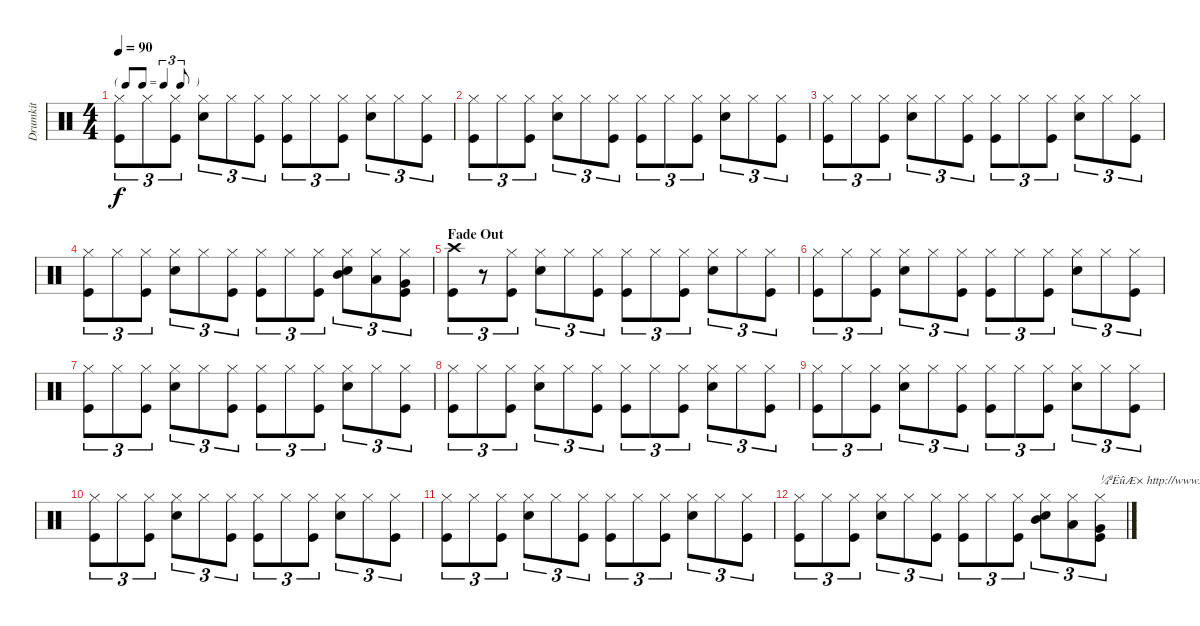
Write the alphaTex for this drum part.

\track ("Drumkit" "Drumkit") {instrument percussion}
\staff {score}
\articulation defaults
\ts (4 4)
\tf triplet8th
\tempo 90
\clef neutral
\ks c
("Hi-Hat (closed)" "Kick (hit)").8{tu (3 2) dy f} "Hi-Hat (closed)".8{tu (3 2)} ("Hi-Hat (closed)" "Kick (hit)").8{tu (3 2)} ("Hi-Hat (closed)" "Snare (hit) 2").8{tu (3 2)} "Hi-Hat (closed)".8{tu (3 2)} ("Hi-Hat (closed)" "Kick (hit)").8{tu (3 2)} ("Hi-Hat (closed)" "Kick (hit)").8{tu (3 2)} "Hi-Hat (closed)".8{tu (3 2)} ("Hi-Hat (closed)" "Kick (hit)").8{tu (3 2)} ("Hi-Hat (closed)" "Snare (hit) 2").8{tu (3 2)} "Hi-Hat (closed)".8{tu (3 2)} ("Hi-Hat (closed)" "Kick (hit)").8{tu (3 2)} |
("Hi-Hat (closed)" "Kick (hit)").8{tu (3 2)} "Hi-Hat (closed)".8{tu (3 2)} ("Hi-Hat (closed)" "Kick (hit)").8{tu (3 2)} ("Hi-Hat (closed)" "Snare (hit) 2").8{tu (3 2)} "Hi-Hat (closed)".8{tu (3 2)} ("Hi-Hat (closed)" "Kick (hit)").8{tu (3 2)} ("Hi-Hat (closed)" "Kick (hit)").8{tu (3 2)} "Hi-Hat (closed)".8{tu (3 2)} ("Hi-Hat (closed)" "Kick (hit)").8{tu (3 2)} ("Hi-Hat (closed)" "Snare (hit) 2").8{tu (3 2)} "Hi-Hat (closed)".8{tu (3 2)} ("Hi-Hat (closed)" "Kick (hit)").8{tu (3 2)} |
("Hi-Hat (closed)" "Kick (hit)").8{tu (3 2)} "Hi-Hat (closed)".8{tu (3 2)} ("Hi-Hat (closed)" "Kick (hit)").8{tu (3 2)} ("Hi-Hat (closed)" "Snare (hit) 2").8{tu (3 2)} "Hi-Hat (closed)".8{tu (3 2)} ("Hi-Hat (closed)" "Kick (hit)").8{tu (3 2)} ("Hi-Hat (closed)" "Kick (hit)").8{tu (3 2)} "Hi-Hat (closed)".8{tu (3 2)} ("Hi-Hat (closed)" "Kick (hit)").8{tu (3 2)} ("Hi-Hat (closed)" "Snare (hit) 2").8{tu (3 2)} "Hi-Hat (closed)".8{tu (3 2)} ("Hi-Hat (closed)" "Kick (hit)").8{tu (3 2)} |
("Hi-Hat (closed)" "Kick (hit)").8{tu (3 2)} "Hi-Hat (closed)".8{tu (3 2)} ("Hi-Hat (closed)" "Kick (hit)").8{tu (3 2)} ("Hi-Hat (closed)" "Snare (hit) 2").8{tu (3 2)} "Hi-Hat (closed)".8{tu (3 2)} ("Hi-Hat (closed)" "Kick (hit)").8{tu (3 2)} ("Hi-Hat (closed)" "Kick (hit)").8{tu (3 2)} "Hi-Hat (closed)".8{tu (3 2)} ("Hi-Hat (closed)" "Kick (hit)").8{tu (3 2)} ("Hi-Hat (closed)" "Mid Tom (hit)" "Snare (hit) 2").8{tu (3 2)} ("Hi-Hat (closed)" "Low Tom (hit)").8{tu (3 2)} ("Hi-Hat (closed)" "Very Low Tom (hit)" "Kick (hit)").8{tu (3 2)} |
\section ("" "Fade Out")
("Crash high (hit)" "Kick (hit)").8{tu (3 2)} r.8{tu (3 2)} ("Hi-Hat (closed)" "Kick (hit)").8{tu (3 2)} ("Hi-Hat (closed)" "Snare (hit) 2").8{tu (3 2)} "Hi-Hat (closed)".8{tu (3 2)} ("Hi-Hat (closed)" "Kick (hit)").8{tu (3 2)} ("Hi-Hat (closed)" "Kick (hit)").8{tu (3 2)} "Hi-Hat (closed)".8{tu (3 2)} ("Hi-Hat (closed)" "Kick (hit)").8{tu (3 2)} ("Hi-Hat (closed)" "Snare (hit) 2").8{tu (3 2)} "Hi-Hat (closed)".8{tu (3 2)} ("Hi-Hat (closed)" "Kick (hit)").8{tu (3 2)} |
("Hi-Hat (closed)" "Kick (hit)").8{tu (3 2)} "Hi-Hat (closed)".8{tu (3 2)} ("Hi-Hat (closed)" "Kick (hit)").8{tu (3 2)} ("Hi-Hat (closed)" "Snare (hit) 2").8{tu (3 2)} "Hi-Hat (closed)".8{tu (3 2)} ("Hi-Hat (closed)" "Kick (hit)").8{tu (3 2)} ("Hi-Hat (closed)" "Kick (hit)").8{tu (3 2)} "Hi-Hat (closed)".8{tu (3 2)} ("Hi-Hat (closed)" "Kick (hit)").8{tu (3 2)} ("Hi-Hat (closed)" "Snare (hit) 2").8{tu (3 2)} "Hi-Hat (closed)".8{tu (3 2)} ("Hi-Hat (closed)" "Kick (hit)").8{tu (3 2)} |
("Hi-Hat (closed)" "Kick (hit)").8{tu (3 2)} "Hi-Hat (closed)".8{tu (3 2)} ("Hi-Hat (closed)" "Kick (hit)").8{tu (3 2)} ("Hi-Hat (closed)" "Snare (hit) 2").8{tu (3 2)} "Hi-Hat (closed)".8{tu (3 2)} ("Hi-Hat (closed)" "Kick (hit)").8{tu (3 2)} ("Hi-Hat (closed)" "Kick (hit)").8{tu (3 2)} "Hi-Hat (closed)".8{tu (3 2)} ("Hi-Hat (closed)" "Kick (hit)").8{tu (3 2)} ("Hi-Hat (closed)" "Snare (hit) 2").8{tu (3 2)} "Hi-Hat (closed)".8{tu (3 2)} ("Hi-Hat (closed)" "Kick (hit)").8{tu (3 2)} |
("Hi-Hat (closed)" "Kick (hit)").8{tu (3 2)} "Hi-Hat (closed)".8{tu (3 2)} ("Hi-Hat (closed)" "Kick (hit)").8{tu (3 2)} ("Hi-Hat (closed)" "Snare (hit) 2").8{tu (3 2)} "Hi-Hat (closed)".8{tu (3 2)} ("Hi-Hat (closed)" "Kick (hit)").8{tu (3 2)} ("Hi-Hat (closed)" "Kick (hit)").8{tu (3 2)} "Hi-Hat (closed)".8{tu (3 2)} ("Hi-Hat (closed)" "Kick (hit)").8{tu (3 2)} ("Hi-Hat (closed)" "Snare (hit) 2").8{tu (3 2)} "Hi-Hat (closed)".8{tu (3 2)} ("Hi-Hat (closed)" "Kick (hit)").8{tu (3 2)} |
("Hi-Hat (closed)" "Kick (hit)").8{tu (3 2)} "Hi-Hat (closed)".8{tu (3 2)} ("Hi-Hat (closed)" "Kick (hit)").8{tu (3 2)} ("Hi-Hat (closed)" "Snare (hit) 2").8{tu (3 2)} "Hi-Hat (closed)".8{tu (3 2)} ("Hi-Hat (closed)" "Kick (hit)").8{tu (3 2)} ("Hi-Hat (closed)" "Kick (hit)").8{tu (3 2)} "Hi-Hat (closed)".8{tu (3 2)} ("Hi-Hat (closed)" "Kick (hit)").8{tu (3 2)} ("Hi-Hat (closed)" "Snare (hit) 2").8{tu (3 2)} "Hi-Hat (closed)".8{tu (3 2)} ("Hi-Hat (closed)" "Kick (hit)").8{tu (3 2)} |
("Hi-Hat (closed)" "Kick (hit)").8{tu (3 2)} "Hi-Hat (closed)".8{tu (3 2)} ("Hi-Hat (closed)" "Kick (hit)").8{tu (3 2)} ("Hi-Hat (closed)" "Snare (hit) 2").8{tu (3 2)} "Hi-Hat (closed)".8{tu (3 2)} ("Hi-Hat (closed)" "Kick (hit)").8{tu (3 2)} ("Hi-Hat (closed)" "Kick (hit)").8{tu (3 2)} "Hi-Hat (closed)".8{tu (3 2)} ("Hi-Hat (closed)" "Kick (hit)").8{tu (3 2)} ("Hi-Hat (closed)" "Snare (hit) 2").8{tu (3 2)} "Hi-Hat (closed)".8{tu (3 2)} ("Hi-Hat (closed)" "Kick (hit)").8{tu (3 2)} |
("Hi-Hat (closed)" "Kick (hit)").8{tu (3 2)} "Hi-Hat (closed)".8{tu (3 2)} ("Hi-Hat (closed)" "Kick (hit)").8{tu (3 2)} ("Hi-Hat (closed)" "Snare (hit) 2").8{tu (3 2)} "Hi-Hat (closed)".8{tu (3 2)} ("Hi-Hat (closed)" "Kick (hit)").8{tu (3 2)} ("Hi-Hat (closed)" "Kick (hit)").8{tu (3 2)} "Hi-Hat (closed)".8{tu (3 2)} ("Hi-Hat (closed)" "Kick (hit)").8{tu (3 2)} ("Hi-Hat (closed)" "Snare (hit) 2").8{tu (3 2)} "Hi-Hat (closed)".8{tu (3 2)} ("Hi-Hat (closed)" "Kick (hit)").8{tu (3 2)} |
("Hi-Hat (closed)" "Kick (hit)").8{tu (3 2)} "Hi-Hat (closed)".8{tu (3 2)} ("Hi-Hat (closed)" "Kick (hit)").8{tu (3 2)} ("Hi-Hat (closed)" "Snare (hit) 2").8{tu (3 2)} "Hi-Hat (closed)".8{tu (3 2)} ("Hi-Hat (closed)" "Kick (hit)").8{tu (3 2)} ("Hi-Hat (closed)" "Kick (hit)").8{tu (3 2)} "Hi-Hat (closed)".8{tu (3 2)} ("Hi-Hat (closed)" "Kick (hit)").8{tu (3 2)} ("Hi-Hat (closed)" "Mid Tom (hit)" "Snare (hit) 2").8{tu (3 2)} ("Hi-Hat (closed)" "Low Tom (hit)").8{tu (3 2)} ("Hi-Hat (closed)" "Very Low Tom (hit)" "Kick (hit)").8{tu (3 2) txt "¼ªËûÆ× http://www.jitapu.com"}
